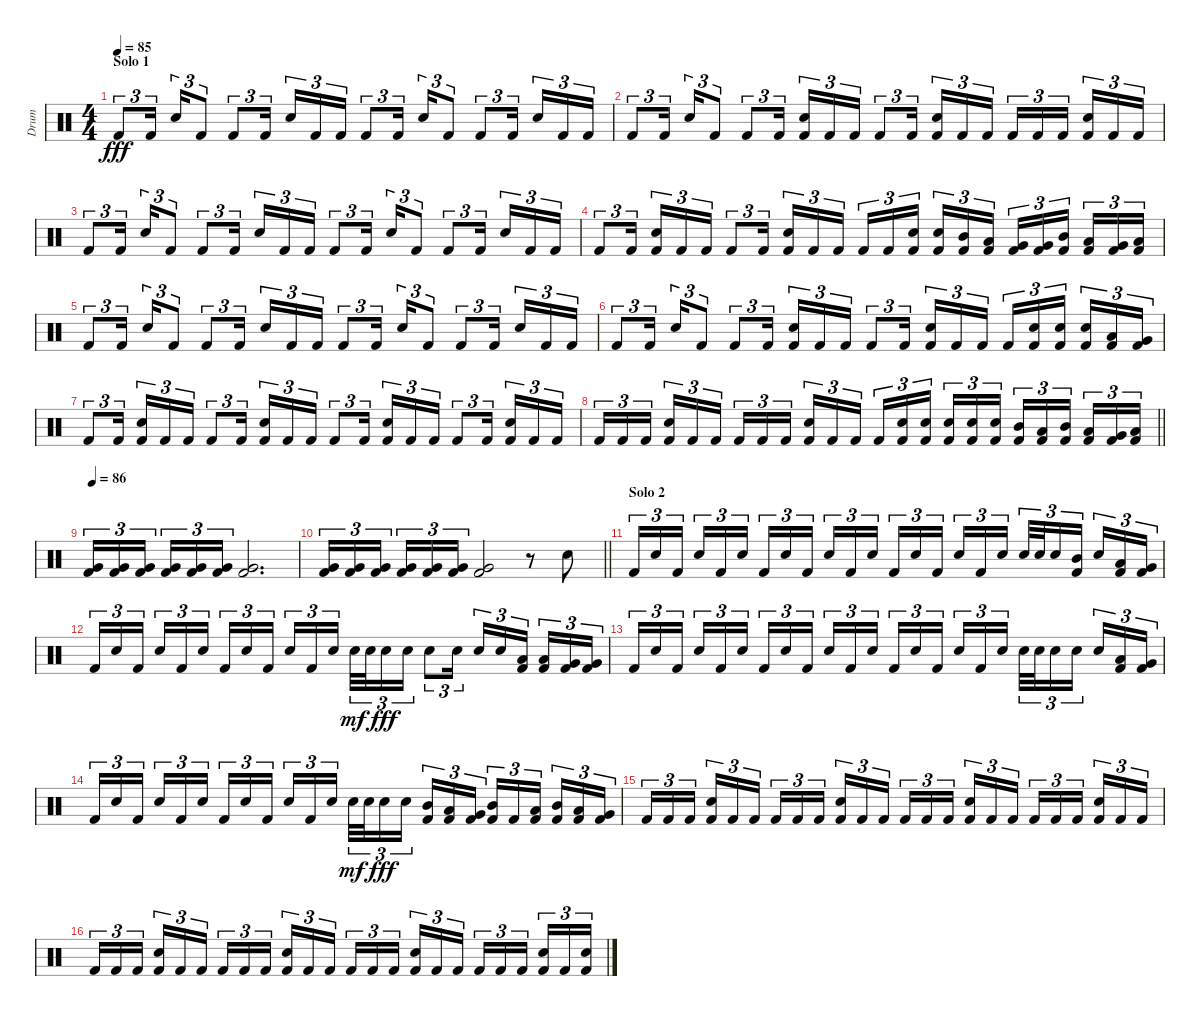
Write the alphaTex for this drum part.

\track ("Drum" "Drum") {instrument percussion}
\staff {score}
\articulation defaults
\ts (4 4)
\section ("" "Solo 1")
\tempo 85
\clef neutral
\ks c "Kick (hit) 2".8{tu (3 2) dy fff} "Kick (hit) 2".16{tu (3 2) beam splitsecondary} "Snare (hit) 2".16{tu (3 2)} "Kick (hit) 2".8{tu (3 2)} "Kick (hit) 2".8{tu (3 2)} "Kick (hit) 2".16{tu (3 2) beam splitsecondary} "Snare (hit) 2".16{tu (3 2)} "Kick (hit) 2".16{tu (3 2)} "Kick (hit) 2".16{tu (3 2)} "Kick (hit) 2".8{tu (3 2)} "Kick (hit) 2".16{tu (3 2) beam splitsecondary} "Snare (hit) 2".16{tu (3 2)} "Kick (hit) 2".8{tu (3 2)} "Kick (hit) 2".8{tu (3 2)} "Kick (hit) 2".16{tu (3 2) beam splitsecondary} "Snare (hit) 2".16{tu (3 2)} "Kick (hit) 2".16{tu (3 2)} "Kick (hit) 2".16{tu (3 2)}
|
"Kick (hit) 2".8{tu (3 2)} "Kick (hit) 2".16{tu (3 2) beam splitsecondary} "Snare (hit) 2".16{tu (3 2)} "Kick (hit) 2".8{tu (3 2)} "Kick (hit) 2".8{tu (3 2)} "Kick (hit) 2".16{tu (3 2) beam splitsecondary} ("Snare (hit) 2" "Kick (hit) 2").16{tu (3 2)} "Kick (hit) 2".16{tu (3 2)} "Kick (hit) 2".16{tu (3 2)} "Kick (hit) 2".8{tu (3 2)} "Kick (hit) 2".16{tu (3 2) beam splitsecondary} ("Snare (hit) 2" "Kick (hit) 2").16{tu (3 2)} "Kick (hit) 2".16{tu (3 2)} "Kick (hit) 2".16{tu (3 2)} "Kick (hit) 2".16{tu (3 2)} "Kick (hit) 2".16{tu (3 2)} "Kick (hit) 2".16{tu (3 2) beam splitsecondary} ("Snare (hit) 2" "Kick (hit) 2").16{tu (3 2)} "Kick (hit) 2".16{tu (3 2)} "Kick (hit) 2".16{tu (3 2)} |
"Kick (hit) 2".8{tu (3 2)} "Kick (hit) 2".16{tu (3 2) beam splitsecondary} "Snare (hit) 2".16{tu (3 2)} "Kick (hit) 2".8{tu (3 2)} "Kick (hit) 2".8{tu (3 2)} "Kick (hit) 2".16{tu (3 2) beam splitsecondary} "Snare (hit) 2".16{tu (3 2)} "Kick (hit) 2".16{tu (3 2)} "Kick (hit) 2".16{tu (3 2)} "Kick (hit) 2".8{tu (3 2)} "Kick (hit) 2".16{tu (3 2) beam splitsecondary} "Snare (hit) 2".16{tu (3 2)} "Kick (hit) 2".8{tu (3 2)} "Kick (hit) 2".8{tu (3 2)} "Kick (hit) 2".16{tu (3 2) beam splitsecondary} "Snare (hit) 2".16{tu (3 2)} "Kick (hit) 2".16{tu (3 2)} "Kick (hit) 2".16{tu (3 2)} |
"Kick (hit) 2".8{tu (3 2)} "Kick (hit) 2".16{tu (3 2) beam splitsecondary} ("Snare (hit) 2" "Kick (hit) 2").16{tu (3 2)} "Kick (hit) 2".16{tu (3 2)} "Kick (hit) 2".16{tu (3 2)} "Kick (hit) 2".8{tu (3 2)} "Kick (hit) 2".16{tu (3 2) beam splitsecondary} ("Snare (hit) 2" "Kick (hit) 2").16{tu (3 2)} "Kick (hit) 2".16{tu (3 2)} "Kick (hit) 2".16{tu (3 2)} "Kick (hit) 2".16{tu (3 2)} "Kick (hit) 2".16{tu (3 2)} ("Snare (hit) 2" "Kick (hit) 2").16{tu (3 2) beam splitsecondary} ("Snare (hit) 2" "Kick (hit) 2").16{tu (3 2)} ("Mid Tom (hit)" "Kick (hit) 2").16{tu (3 2)} ("Low Tom (hit)" "Kick (hit) 2").16{tu (3 2)} ("Very Low Tom (hit)" "Kick (hit) 2").16{tu (3 2)} ("Very Low Tom (hit)" "Kick (hit) 2").16{tu (3 2)} ("Mid Tom (hit)" "Kick (hit) 2").16{tu (3 2) beam splitsecondary} ("Low Tom (hit)" "Kick (hit) 2").16{tu (3 2)} ("Very Low Tom (hit)" "Kick (hit) 2").16{tu (3 2)} ("Low Floor Tom (hit)" "Kick (hit) 2").16{tu (3 2)} |
"Kick (hit) 2".8{tu (3 2)} "Kick (hit) 2".16{tu (3 2) beam splitsecondary} "Snare (hit) 2".16{tu (3 2)} "Kick (hit) 2".8{tu (3 2)} "Kick (hit) 2".8{tu (3 2)} "Kick (hit) 2".16{tu (3 2) beam splitsecondary} "Snare (hit) 2".16{tu (3 2)} "Kick (hit) 2".16{tu (3 2)} "Kick (hit) 2".16{tu (3 2)} "Kick (hit) 2".8{tu (3 2)} "Kick (hit) 2".16{tu (3 2) beam splitsecondary} "Snare (hit) 2".16{tu (3 2)} "Kick (hit) 2".8{tu (3 2)} "Kick (hit) 2".8{tu (3 2)} "Kick (hit) 2".16{tu (3 2) beam splitsecondary} "Snare (hit) 2".16{tu (3 2)} "Kick (hit) 2".16{tu (3 2)} "Kick (hit) 2".16{tu (3 2)} |
"Kick (hit) 2".8{tu (3 2)} "Kick (hit) 2".16{tu (3 2) beam splitsecondary} "Snare (hit) 2".16{tu (3 2)} "Kick (hit) 2".8{tu (3 2)} "Kick (hit) 2".8{tu (3 2)} "Kick (hit) 2".16{tu (3 2) beam splitsecondary} ("Snare (hit) 2" "Kick (hit) 2").16{tu (3 2)} "Kick (hit) 2".16{tu (3 2)} "Kick (hit) 2".16{tu (3 2)} "Kick (hit) 2".8{tu (3 2)} "Kick (hit) 2".16{tu (3 2) beam splitsecondary} ("Snare (hit) 2" "Kick (hit) 2").16{tu (3 2)} "Kick (hit) 2".16{tu (3 2)} "Kick (hit) 2".16{tu (3 2)} "Kick (hit) 2".16{tu (3 2)} ("Snare (hit) 2" "Kick (hit) 2").16{tu (3 2)} ("Snare (hit) 2" "Kick (hit) 2").16{tu (3 2) beam splitsecondary} ("Snare (hit) 2" "Kick (hit) 2").16{tu (3 2)} ("Low Tom (hit)" "Kick (hit) 2").16{tu (3 2)} ("Very Low Tom (hit)" "Kick (hit) 2").16{tu (3 2)} |
"Kick (hit) 2".8{tu (3 2)} "Kick (hit) 2".16{tu (3 2) beam splitsecondary} ("Snare (hit) 2" "Kick (hit) 2").16{tu (3 2)} "Kick (hit) 2".16{tu (3 2)} "Kick (hit) 2".16{tu (3 2)} "Kick (hit) 2".8{tu (3 2)} "Kick (hit) 2".16{tu (3 2) beam splitsecondary} ("Snare (hit) 2" "Kick (hit) 2").16{tu (3 2)} "Kick (hit) 2".16{tu (3 2)} "Kick (hit) 2".16{tu (3 2)} "Kick (hit) 2".8{tu (3 2)} "Kick (hit) 2".16{tu (3 2) beam splitsecondary} ("Snare (hit) 2" "Kick (hit) 2").16{tu (3 2)} "Kick (hit) 2".16{tu (3 2)} "Kick (hit) 2".16{tu (3 2)} "Kick (hit) 2".8{tu (3 2)} "Kick (hit) 2".16{tu (3 2) beam splitsecondary} ("Snare (hit) 2" "Kick (hit) 2").16{tu (3 2)} "Kick (hit) 2".16{tu (3 2)} "Kick (hit) 2".16{tu (3 2)} |
\barLineRight lightlight "Kick (hit) 2".16{tu (3 2)} "Kick (hit) 2".16{tu (3 2)} "Kick (hit) 2".16{tu (3 2) beam splitsecondary}
("Snare (hit) 2" "Kick (hit) 2").16{tu (3 2)} "Kick (hit) 2".16{tu (3 2)} "Kick (hit) 2".16{tu (3 2)} "Kick (hit) 2".16{tu (3 2)} "Kick (hit) 2".16{tu (3 2)} "Kick (hit) 2".16{tu (3 2) beam splitsecondary} ("Snare (hit) 2" "Kick (hit) 2").16{tu (3 2)} "Kick (hit) 2".16{tu (3 2)} "Kick (hit) 2".16{tu (3 2)} "Kick (hit) 2".16{tu (3 2)} ("Snare (hit) 2" "Kick (hit) 2").16{tu (3 2)} ("Snare (hit) 2" "Kick (hit) 2").16{tu (3 2) beam splitsecondary} ("Snare (hit) 2" "Kick (hit) 2").16{tu (3 2)} ("Snare (hit) 2" "Kick (hit) 2").16{tu (3 2)} ("Snare (hit) 2" "Kick (hit) 2").16{tu (3 2)} ("Mid Tom (hit)" "Kick (hit) 2").16{tu (3 2)} ("Low Tom (hit)" "Kick (hit) 2").16{tu (3 2)} ("Mid Tom (hit)" "Kick (hit) 2").16{tu (3 2) beam splitsecondary} ("Low Tom (hit)" "Kick (hit) 2").16{tu (3 2)} ("Very Low Tom (hit)" "Kick (hit) 2").16{tu (3 2)} ("Low Floor Tom (hit)" "Kick (hit) 2").16{tu (3 2)} |
\tempo 86
("Very Low Tom (hit)" "Kick (hit) 2").16{tu (3 2)} ("Very Low Tom (hit)" "Kick (hit) 2").16{tu (3 2)} ("Very Low Tom (hit)" "Kick (hit) 2").16{tu (3 2) beam splitsecondary} ("Very Low Tom (hit)" "Kick (hit) 2").16{tu (3 2)} ("Very Low Tom (hit)" "Kick (hit) 2").16{tu (3 2)} ("Very Low Tom (hit)" "Kick (hit) 2").16{tu (3 2)} ("Very Low Tom (hit)" "Kick (hit) 2").2{d} |
\barLineRight lightlight
("Very Low Tom (hit)" "Kick (hit) 2").16{tu (3 2)} ("Very Low Tom (hit)" "Kick (hit) 2").16{tu (3 2)} ("Very Low Tom (hit)" "Kick (hit) 2").16{tu (3 2) beam splitsecondary} ("Very Low Tom (hit)" "Kick (hit) 2").16{tu (3 2)} ("Very Low Tom (hit)" "Kick (hit) 2").16{tu (3 2)} ("Very Low Tom (hit)" "Kick (hit) 2").16{tu (3 2)} ("Very Low Tom (hit)" "Kick (hit) 2").2 r.8 "Snare (hit) 2".8 |
\section ("" "Solo 2")
"Kick (hit) 2".16{tu (3 2)} "Snare (hit) 2".16{tu (3 2)} "Kick (hit) 2".16{tu (3 2) beam splitsecondary} "Snare (hit) 2".16{tu (3 2)} "Kick (hit) 2".16{tu (3 2)} "Snare (hit) 2".16{tu (3 2)} "Kick (hit) 2".16{tu (3 2)} "Snare (hit) 2".16{tu (3 2)} "Kick (hit) 2".16{tu (3 2) beam splitsecondary} "Snare (hit) 2".16{tu (3 2)} "Kick (hit) 2".16{tu (3 2)} "Snare (hit) 2".16{tu (3 2)} "Kick (hit) 2".16{tu (3 2)} "Snare (hit) 2".16{tu (3 2)} "Kick (hit) 2".16{tu (3 2) beam splitsecondary} "Snare (hit) 2".16{tu (3 2)} "Kick (hit) 2".16{tu (3 2)} "Snare (hit) 2".16{tu (3 2)} "Snare (hit) 2".32{tu (3 2)} "Snare (hit) 2".32{tu (3 2)} "Snare (hit) 2".16{tu (3 2)} ("Mid Tom (hit)" "Kick (hit) 2").16{tu (3 2) beam splitsecondary} "Snare (hit) 2".16{tu (3 2)} ("Low Tom (hit)" "Kick (hit) 2").16{tu (3 2)} ("Very Low Tom (hit)" "Kick (hit) 2").16{tu (3 2)} |
"Kick (hit) 2".16{tu (3 2)} "Snare (hit) 2".16{tu (3 2)} "Kick (hit) 2".16{tu (3 2) beam splitsecondary} "Snare (hit) 2".16{tu (3 2)} "Kick (hit) 2".16{tu (3 2)} "Snare (hit) 2".16{tu (3 2)} "Kick (hit) 2".16{tu (3 2)} "Snare (hit) 2".16{tu (3 2)} "Kick (hit) 2".16{tu (3 2) beam splitsecondary} "Snare (hit) 2".16{tu (3 2)} "Kick (hit) 2".16{tu (3 2)} "Snare (hit) 2".16{tu (3 2)} "Snare (hit) 2".32{tu (3 2) dy mf} "Snare (hit) 2".32{tu (3 2)} "Snare (hit) 2".16{tu (3 2) dy fff} "Snare (hit) 2".16{tu (3 2)} "Snare (hit) 2".8{tu (3 2)} "Snare (hit) 2".16{tu (3 2)} "Snare (hit) 2".16{tu (3 2)} "Snare (hit) 2".16{tu (3 2)} ("Low Tom (hit)" "Kick (hit) 2").16{tu (3 2) beam splitsecondary} ("Low Tom (hit)" "Kick (hit) 2").16{tu (3 2)} ("Very Low Tom (hit)" "Kick (hit) 2").16{tu (3 2)} ("Very Low Tom (hit)" "Kick (hit) 2").16{tu (3 2)} |
"Kick (hit) 2".16{tu (3 2)} "Snare (hit) 2".16{tu (3 2)} "Kick (hit) 2".16{tu (3 2) beam splitsecondary} "Snare (hit) 2".16{tu (3 2)} "Kick (hit) 2".16{tu (3 2)} "Snare (hit) 2".16{tu (3 2)} "Kick (hit) 2".16{tu (3 2)} "Snare (hit) 2".16{tu (3 2)} "Kick (hit) 2".16{tu (3 2) beam splitsecondary} "Snare (hit) 2".16{tu (3 2)} "Kick (hit) 2".16{tu (3 2)} "Snare (hit) 2".16{tu (3 2)} "Kick (hit) 2".16{tu (3 2)} "Snare (hit) 2".16{tu (3 2)} "Kick (hit) 2".16{tu (3 2) beam splitsecondary} "Snare (hit) 2".16{tu (3 2)} "Kick (hit) 2".16{tu (3 2)} "Snare (hit) 2".16{tu (3 2)} "Snare (hit) 2".32{tu (3 2)} "Snare (hit) 2".32{tu (3 2)} "Snare (hit) 2".16{tu (3 2)} "Snare (hit) 2".16{tu (3 2) beam splitsecondary} "Snare (hit) 2".16{tu (3 2)} ("Low Tom (hit)" "Kick (hit) 2").16{tu (3 2)} ("Very Low Tom (hit)" "Kick (hit) 2").16{tu (3 2)} |
"Kick (hit) 2".16{tu (3 2)} "Snare (hit) 2".16{tu (3 2)} "Kick (hit) 2".16{tu (3 2) beam splitsecondary} "Snare (hit) 2".16{tu (3 2)} "Kick (hit) 2".16{tu (3 2)} "Snare (hit) 2".16{tu (3 2)} "Kick (hit) 2".16{tu (3 2)} "Snare (hit) 2".16{tu (3 2)} "Kick (hit) 2".16{tu (3 2) beam splitsecondary} "Snare (hit) 2".16{tu (3 2)} "Kick (hit) 2".16{tu (3 2)} "Snare (hit) 2".16{tu (3 2)} "Snare (hit) 2".32{tu (3 2) dy mf} "Snare (hit) 2".32{tu (3 2)} "Snare (hit) 2".16{tu (3 2) dy fff} "Snare (hit) 2".16{tu (3 2) beam splitsecondary} ("Mid Tom (hit)" "Kick (hit) 2").16{tu (3 2)} ("Low Tom (hit)" "Kick (hit) 2").16{tu (3 2)} ("Very Low Tom (hit)" "Kick (hit) 2").16{tu (3 2)} ("Mid Tom (hit)" "Kick (hit) 2").16{tu (3 2)} "Kick (hit) 2".16{tu (3 2)} ("Low Tom (hit)" "Kick (hit) 2").16{tu (3 2) beam splitsecondary} ("Mid Tom (hit)" "Kick (hit) 2").16{tu (3 2)} ("Low Tom (hit)" "Kick (hit) 2").16{tu (3 2)} ("Very Low Tom (hit)" "Kick (hit) 2").16{tu (3 2)} |
"Kick (hit) 2".16{tu (3 2)} "Kick (hit) 2".16{tu (3 2)} "Kick (hit) 2".16{tu (3 2) beam splitsecondary} ("Snare (hit) 2" "Kick (hit) 2").16{tu (3 2)} "Kick (hit) 2".16{tu (3 2)} "Kick (hit) 2".16{tu (3 2)} "Kick (hit) 2".16{tu (3 2)} "Kick (hit) 2".16{tu (3 2)} "Kick (hit) 2".16{tu (3 2) beam splitsecondary} ("Snare (hit) 2" "Kick (hit) 2").16{tu (3 2)} "Kick (hit) 2".16{tu (3 2)} "Kick (hit) 2".16{tu (3 2)} "Kick (hit) 2".16{tu (3 2)} "Kick (hit) 2".16{tu (3 2)} "Kick (hit) 2".16{tu (3 2) beam splitsecondary} ("Snare (hit) 2" "Kick (hit) 2").16{tu (3 2)} "Kick (hit) 2".16{tu (3 2)} "Kick (hit) 2".16{tu (3 2)} "Kick (hit) 2".16{tu (3 2)} "Kick (hit) 2".16{tu (3 2)} "Kick (hit) 2".16{tu (3 2) beam splitsecondary} ("Snare (hit) 2" "Kick (hit) 2").16{tu (3 2)} "Kick (hit) 2".16{tu (3 2)} "Kick (hit) 2".16{tu (3 2)} |
"Kick (hit) 2".16{tu (3 2)} "Kick (hit) 2".16{tu (3 2)} "Kick (hit) 2".16{tu (3 2) beam splitsecondary} ("Snare (hit) 2" "Kick (hit) 2").16{tu (3 2)} "Kick (hit) 2".16{tu (3 2)} "Kick (hit) 2".16{tu (3 2)} "Kick (hit) 2".16{tu (3 2)} "Kick (hit) 2".16{tu (3 2)} "Kick (hit) 2".16{tu (3 2) beam splitsecondary} ("Snare (hit) 2" "Kick (hit) 2").16{tu (3 2)} "Kick (hit) 2".16{tu (3 2)} "Kick (hit) 2".16{tu (3 2)} "Kick (hit) 2".16{tu (3 2)} "Kick (hit) 2".16{tu (3 2)} "Kick (hit) 2".16{tu (3 2) beam splitsecondary} ("Snare (hit) 2" "Kick (hit) 2").16{tu (3 2)} "Kick (hit) 2".16{tu (3 2)} "Kick (hit) 2".16{tu (3 2)} "Kick (hit) 2".16{tu (3 2)} "Kick (hit) 2".16{tu (3 2)} "Kick (hit) 2".16{tu (3 2) beam splitsecondary} ("Snare (hit) 2" "Kick (hit) 2").16{tu (3 2)} "Kick (hit) 2".16{tu (3 2)} ("Snare (hit) 2" "Kick (hit) 2").16{tu (3 2)}
